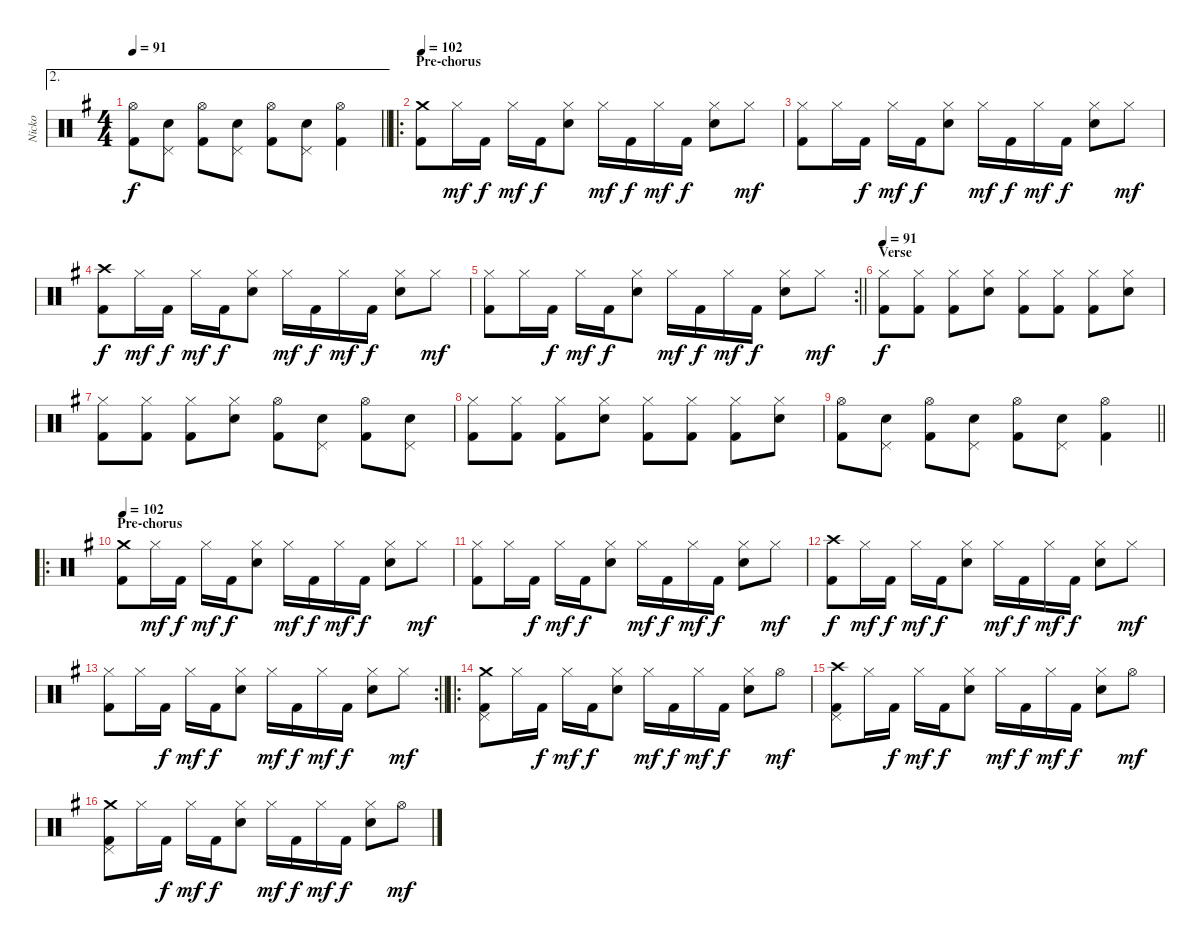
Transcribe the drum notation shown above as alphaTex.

\track ("Nicko" "Nicko") {instrument percussion}
\staff {score}
\articulation defaults
\ae 2
\ts (4 4)
\tempo 91
\clef neutral
\barLineRight lightlight
\ks eminor
("Hi-Hat (open)" "Kick (hit) 2").8{dy f} ("Pedal Hi-Hat (hit)" "Snare (hit) 2").8 ("Hi-Hat (open)" "Kick (hit) 2").8 ("Pedal Hi-Hat (hit)" "Snare (hit) 2").8 ("Hi-Hat (open)" "Kick (hit) 2").8 ("Pedal Hi-Hat (hit)" "Snare (hit) 2").8 ("Hi-Hat (open)" "Kick (hit) 2").4 |
\ro
\section ("" "Pre-chorus")
\tempo 102
("Crash medium (hit)" "Kick (hit) 2").8 "Hi-Hat (closed)".16{dy mf} "Kick (hit) 2".16{dy f} "Hi-Hat (closed)".16{dy mf} "Kick (hit) 2".16{dy f} ("Hi-Hat (closed)" "Snare (hit) 2").8 "Hi-Hat (closed)".16{dy mf} "Kick (hit) 2".16{dy f} "Hi-Hat (closed)".16{dy mf} "Kick (hit) 2".16{dy f} ("Hi-Hat (closed)" "Snare (hit) 2").8 "Hi-Hat (closed)".8{dy mf} |
("Hi-Hat (closed)" "Kick (hit) 2").8 "Hi-Hat (closed)".16 "Kick (hit) 2".16{dy f} "Hi-Hat (closed)".16{dy mf} "Kick (hit) 2".16{dy f} ("Hi-Hat (closed)" "Snare (hit) 2").8 "Hi-Hat (closed)".16{dy mf} "Kick (hit) 2".16{dy f} "Hi-Hat (closed)".16{dy mf} "Kick (hit) 2".16{dy f} ("Hi-Hat (closed)" "Snare (hit) 2").8 "Hi-Hat (closed)".8{dy mf} |
("Crash high (hit)" "Kick (hit) 2").8{dy f} "Hi-Hat (closed)".16{dy mf} "Kick (hit) 2".16{dy f} "Hi-Hat (closed)".16{dy mf} "Kick (hit) 2".16{dy f} ("Hi-Hat (closed)" "Snare (hit) 2").8 "Hi-Hat (closed)".16{dy mf} "Kick (hit) 2".16{dy f} "Hi-Hat (closed)".16{dy mf} "Kick (hit) 2".16{dy f} ("Hi-Hat (closed)" "Snare (hit) 2").8 "Hi-Hat (closed)".8{dy mf} |
\rc 2
\barLineRight lightlight
("Hi-Hat (closed)" "Kick (hit) 2").8 "Hi-Hat (closed)".16 "Kick (hit) 2".16{dy f} "Hi-Hat (closed)".16{dy mf} "Kick (hit) 2".16{dy f} ("Hi-Hat (closed)" "Snare (hit) 2").8 "Hi-Hat (closed)".16{dy mf} "Kick (hit) 2".16{dy f} "Hi-Hat (closed)".16{dy mf} "Kick (hit) 2".16{dy f} ("Hi-Hat (closed)" "Snare (hit) 2").8 "Hi-Hat (closed)".8{dy mf} |
\section ("" "Verse")
\tempo 91
("Hi-Hat (closed)" "Kick (hit) 2").8{dy f} ("Hi-Hat (closed)" "Kick (hit) 2").8 ("Hi-Hat (closed)" "Kick (hit) 2").8 ("Hi-Hat (closed)" "Snare (hit) 2").8 ("Hi-Hat (closed)" "Kick (hit) 2").8 ("Hi-Hat (closed)" "Kick (hit) 2").8 ("Hi-Hat (closed)" "Kick (hit) 2").8 ("Hi-Hat (closed)" "Snare (hit) 2").8 |
("Hi-Hat (closed)" "Kick (hit) 2").8 ("Hi-Hat (closed)" "Kick (hit) 2").8 ("Hi-Hat (closed)" "Kick (hit) 2").8 ("Hi-Hat (closed)" "Snare (hit) 2").8 ("Hi-Hat (open)" "Kick (hit) 2").8 ("Pedal Hi-Hat (hit)" "Snare (hit) 2").8 ("Hi-Hat (open)" "Kick (hit) 2").8 ("Pedal Hi-Hat (hit)" "Snare (hit) 2").8 |
("Hi-Hat (closed)" "Kick (hit) 2").8 ("Hi-Hat (closed)" "Kick (hit) 2").8 ("Hi-Hat (closed)" "Kick (hit) 2").8 ("Hi-Hat (closed)" "Snare (hit) 2").8 ("Hi-Hat (closed)" "Kick (hit) 2").8 ("Hi-Hat (closed)" "Kick (hit) 2").8 ("Hi-Hat (closed)" "Kick (hit) 2").8 ("Hi-Hat (closed)" "Snare (hit) 2").8 |
\barLineRight lightlight
("Hi-Hat (open)" "Kick (hit) 2").8 ("Pedal Hi-Hat (hit)" "Snare (hit) 2").8 ("Hi-Hat (open)" "Kick (hit) 2").8 ("Pedal Hi-Hat (hit)" "Snare (hit) 2").8 ("Hi-Hat (open)" "Kick (hit) 2").8 ("Pedal Hi-Hat (hit)" "Snare (hit) 2").8 ("Hi-Hat (open)" "Kick (hit) 2").4 |
\ro
\section ("" "Pre-chorus")
\tempo 102
("Crash medium (hit)" "Kick (hit) 2").8 "Hi-Hat (closed)".16{dy mf} "Kick (hit) 2".16{dy f} "Hi-Hat (closed)".16{dy mf} "Kick (hit) 2".16{dy f} ("Hi-Hat (closed)" "Snare (hit) 2").8 "Hi-Hat (closed)".16{dy mf} "Kick (hit) 2".16{dy f} "Hi-Hat (closed)".16{dy mf} "Kick (hit) 2".16{dy f} ("Hi-Hat (closed)" "Snare (hit) 2").8 "Hi-Hat (closed)".8{dy mf} |
("Hi-Hat (closed)" "Kick (hit) 2").8 "Hi-Hat (closed)".16 "Kick (hit) 2".16{dy f} "Hi-Hat (closed)".16{dy mf} "Kick (hit) 2".16{dy f} ("Hi-Hat (closed)" "Snare (hit) 2").8 "Hi-Hat (closed)".16{dy mf} "Kick (hit) 2".16{dy f} "Hi-Hat (closed)".16{dy mf} "Kick (hit) 2".16{dy f} ("Hi-Hat (closed)" "Snare (hit) 2").8 "Hi-Hat (closed)".8{dy mf} |
("Crash high (hit)" "Kick (hit) 2").8{dy f} "Hi-Hat (closed)".16{dy mf} "Kick (hit) 2".16{dy f} "Hi-Hat (closed)".16{dy mf} "Kick (hit) 2".16{dy f} ("Hi-Hat (closed)" "Snare (hit) 2").8 "Hi-Hat (closed)".16{dy mf} "Kick (hit) 2".16{dy f} "Hi-Hat (closed)".16{dy mf} "Kick (hit) 2".16{dy f} ("Hi-Hat (closed)" "Snare (hit) 2").8 "Hi-Hat (closed)".8{dy mf} |
\rc 2
\barLineRight lightlight
("Hi-Hat (closed)" "Kick (hit) 2").8 "Hi-Hat (closed)".16 "Kick (hit) 2".16{dy f} "Hi-Hat (closed)".16{dy mf} "Kick (hit) 2".16{dy f} ("Hi-Hat (closed)" "Snare (hit) 2").8 "Hi-Hat (closed)".16{dy mf} "Kick (hit) 2".16{dy f} "Hi-Hat (closed)".16{dy mf} "Kick (hit) 2".16{dy f} ("Hi-Hat (closed)" "Snare (hit) 2").8 "Hi-Hat (closed)".8{dy mf} |
\ro
("Crash medium (hit)" "Pedal Hi-Hat (hit)" "Kick (hit) 2").8 "Hi-Hat (closed)".16 "Kick (hit) 2".16{dy f} "Hi-Hat (closed)".16{dy mf} "Kick (hit) 2".16{dy f} ("Hi-Hat (closed)" "Snare (hit) 2").8 "Hi-Hat (closed)".16{dy mf} "Kick (hit) 2".16{dy f} "Hi-Hat (closed)".16{dy mf} "Kick (hit) 2".16{dy f} ("Hi-Hat (closed)" "Snare (hit) 2").8 "Hi-Hat (open)".8{dy mf} |
("Crash high (hit)" "Pedal Hi-Hat (hit)" "Kick (hit) 2").8 "Hi-Hat (closed)".16 "Kick (hit) 2".16{dy f} "Hi-Hat (closed)".16{dy mf} "Kick (hit) 2".16{dy f} ("Hi-Hat (closed)" "Snare (hit) 2").8 "Hi-Hat (closed)".16{dy mf} "Kick (hit) 2".16{dy f} "Hi-Hat (closed)".16{dy mf} "Kick (hit) 2".16{dy f} ("Hi-Hat (closed)" "Snare (hit) 2").8 "Hi-Hat (open)".8{dy mf} |
("Crash medium (hit)" "Pedal Hi-Hat (hit)" "Kick (hit) 2").8 "Hi-Hat (closed)".16 "Kick (hit) 2".16{dy f} "Hi-Hat (closed)".16{dy mf} "Kick (hit) 2".16{dy f} ("Hi-Hat (closed)" "Snare (hit) 2").8 "Hi-Hat (closed)".16{dy mf} "Kick (hit) 2".16{dy f} "Hi-Hat (closed)".16{dy mf} "Kick (hit) 2".16{dy f} ("Hi-Hat (closed)" "Snare (hit) 2").8 "Hi-Hat (open)".8{dy mf}
